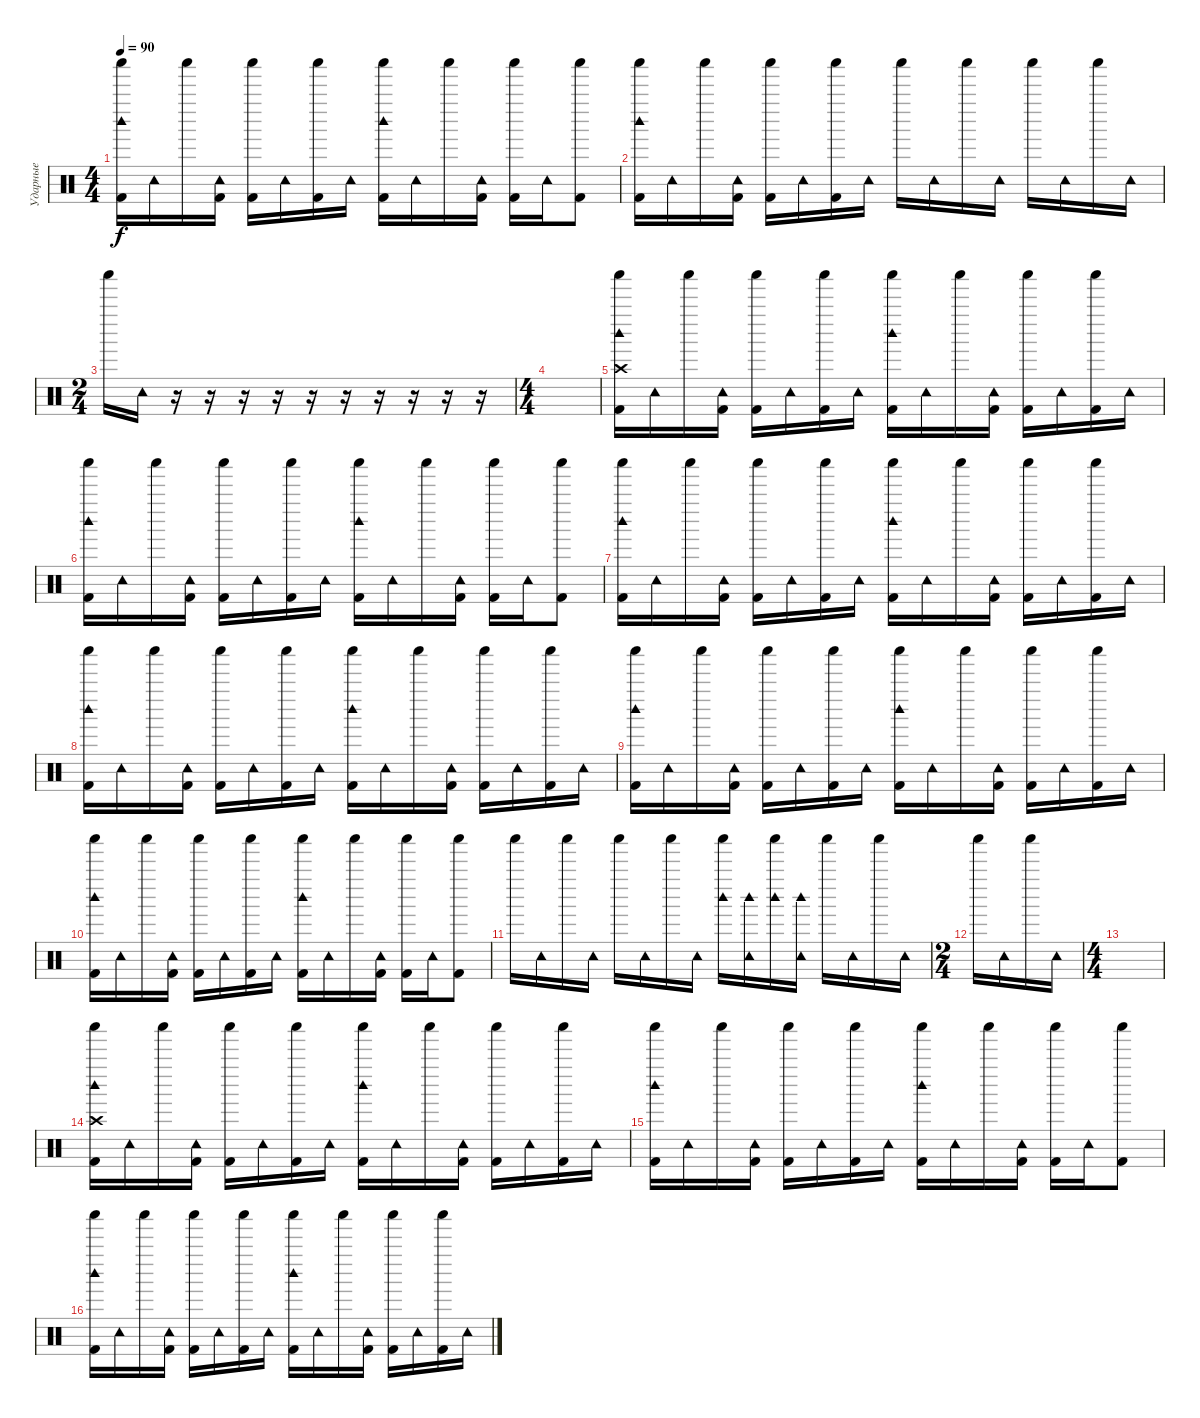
\track ("Ударные" "Ударные") {instrument percussion}
\staff {score}
\articulation defaults
\ts (4 4)
\tempo 90
\clef neutral
\ks c
("Shaker (hit)" "Kick (hit) 2" "Woodblock high (hit)").16{dy f} "Tambourine (hit)".16 "Shaker (hit)".16 ("Tambourine (hit)" "Kick (hit) 2").16 ("Shaker (hit)" "Kick (hit) 2").16 "Tambourine (hit)".16 ("Shaker (hit)" "Kick (hit) 2").16 "Tambourine (hit)".16 ("Shaker (hit)" "Kick (hit) 2" "Woodblock high (hit)").16 "Tambourine (hit)".16 "Shaker (hit)".16 ("Tambourine (hit)" "Kick (hit) 2").16 ("Shaker (hit)" "Kick (hit) 2").16 "Tambourine (hit)".16 ("Shaker (hit)" "Kick (hit) 2").8 |
("Shaker (hit)" "Kick (hit) 2" "Woodblock high (hit)").16 "Tambourine (hit)".16 "Shaker (hit)".16 ("Tambourine (hit)" "Kick (hit) 2").16 ("Shaker (hit)" "Kick (hit) 2").16 "Tambourine (hit)".16 ("Shaker (hit)" "Kick (hit) 2").16 "Tambourine (hit)".16 "Shaker (hit)".16 "Tambourine (hit)".16 "Shaker (hit)".16 "Tambourine (hit)".16 "Shaker (hit)".16 "Tambourine (hit)".16 "Shaker (hit)".16 "Tambourine (hit)".16 |
\ts (2 4)
"Shaker (hit)".16 "Tambourine (hit)".16 r.16 r.16 r.16 r.16 r.16 r.16 r.16 r.16 r.16 r.16 |
\ts (4 4)
|
("Shaker (hit)" "Kick (hit) 2" "Woodblock high (hit)" "Crash high (hit)").16 "Tambourine (hit)".16 "Shaker (hit)".16 ("Tambourine (hit)" "Kick (hit) 2").16 ("Shaker (hit)" "Kick (hit) 2").16 "Tambourine (hit)".16 ("Shaker (hit)" "Kick (hit) 2").16 "Tambourine (hit)".16 ("Shaker (hit)" "Kick (hit) 2" "Woodblock high (hit)").16 "Tambourine (hit)".16 "Shaker (hit)".16 ("Tambourine (hit)" "Kick (hit) 2").16 ("Shaker (hit)" "Kick (hit) 2").16 "Tambourine (hit)".16 ("Shaker (hit)" "Kick (hit) 2").16 "Tambourine (hit)".16 |
("Shaker (hit)" "Kick (hit) 2" "Woodblock high (hit)").16 "Tambourine (hit)".16 "Shaker (hit)".16 ("Tambourine (hit)" "Kick (hit) 2").16 ("Shaker (hit)" "Kick (hit) 2").16 "Tambourine (hit)".16 ("Shaker (hit)" "Kick (hit) 2").16 "Tambourine (hit)".16 ("Shaker (hit)" "Kick (hit) 2" "Woodblock high (hit)").16 "Tambourine (hit)".16 "Shaker (hit)".16 ("Tambourine (hit)" "Kick (hit) 2").16 ("Shaker (hit)" "Kick (hit) 2").16 "Tambourine (hit)".16 ("Shaker (hit)" "Kick (hit) 2").8 |
("Shaker (hit)" "Kick (hit) 2" "Woodblock high (hit)").16 "Tambourine (hit)".16 "Shaker (hit)".16 ("Tambourine (hit)" "Kick (hit) 2").16 ("Shaker (hit)" "Kick (hit) 2").16 "Tambourine (hit)".16 ("Shaker (hit)" "Kick (hit) 2").16 "Tambourine (hit)".16 ("Shaker (hit)" "Kick (hit) 2" "Woodblock high (hit)").16 "Tambourine (hit)".16 "Shaker (hit)".16 ("Tambourine (hit)" "Kick (hit) 2").16 ("Shaker (hit)" "Kick (hit) 2").16 "Tambourine (hit)".16 ("Shaker (hit)" "Kick (hit) 2").16 "Tambourine (hit)".16 |
("Shaker (hit)" "Kick (hit) 2" "Woodblock high (hit)").16 "Tambourine (hit)".16 "Shaker (hit)".16 ("Tambourine (hit)" "Kick (hit) 2").16 ("Shaker (hit)" "Kick (hit) 2").16 "Tambourine (hit)".16 ("Shaker (hit)" "Kick (hit) 2").16 "Tambourine (hit)".16 ("Shaker (hit)" "Kick (hit) 2" "Woodblock high (hit)").16 "Tambourine (hit)".16 "Shaker (hit)".16 ("Tambourine (hit)" "Kick (hit) 2").16 ("Shaker (hit)" "Kick (hit) 2").16 "Tambourine (hit)".16 ("Shaker (hit)" "Kick (hit) 2").16 "Tambourine (hit)".16 |
("Shaker (hit)" "Kick (hit) 2" "Woodblock high (hit)").16 "Tambourine (hit)".16 "Shaker (hit)".16 ("Tambourine (hit)" "Kick (hit) 2").16 ("Shaker (hit)" "Kick (hit) 2").16 "Tambourine (hit)".16 ("Shaker (hit)" "Kick (hit) 2").16 "Tambourine (hit)".16 ("Shaker (hit)" "Kick (hit) 2" "Woodblock high (hit)").16 "Tambourine (hit)".16 "Shaker (hit)".16 ("Tambourine (hit)" "Kick (hit) 2").16 ("Shaker (hit)" "Kick (hit) 2").16 "Tambourine (hit)".16 ("Shaker (hit)" "Kick (hit) 2").16 "Tambourine (hit)".16 |
("Shaker (hit)" "Kick (hit) 2" "Woodblock high (hit)").16 "Tambourine (hit)".16 "Shaker (hit)".16 ("Tambourine (hit)" "Kick (hit) 2").16 ("Shaker (hit)" "Kick (hit) 2").16 "Tambourine (hit)".16 ("Shaker (hit)" "Kick (hit) 2").16 "Tambourine (hit)".16 ("Shaker (hit)" "Kick (hit) 2" "Woodblock high (hit)").16 "Tambourine (hit)".16 "Shaker (hit)".16 ("Tambourine (hit)" "Kick (hit) 2").16 ("Shaker (hit)" "Kick (hit) 2").16 "Tambourine (hit)".16 ("Shaker (hit)" "Kick (hit) 2").8 |
"Shaker (hit)".16 "Tambourine (hit)".16 "Shaker (hit)".16 "Tambourine (hit)".16 "Shaker (hit)".16 "Tambourine (hit)".16 "Shaker (hit)".16 "Tambourine (hit)".16 ("Shaker (hit)" "Woodblock high (hit)").16 ("Tambourine (hit)" "Woodblock high (hit)").16 ("Shaker (hit)" "Woodblock high (hit)").16 ("Tambourine (hit)" "Woodblock high (hit)").16 "Shaker (hit)".16 "Tambourine (hit)".16 "Shaker (hit)".16 "Tambourine (hit)".16 |
\ts (2 4)
"Shaker (hit)".16 "Tambourine (hit)".16 "Shaker (hit)".16 "Tambourine (hit)".16 |
\ts (4 4)
|
("Shaker (hit)" "Kick (hit) 2" "Woodblock high (hit)" "Crash high (hit)").16 "Tambourine (hit)".16 "Shaker (hit)".16 ("Tambourine (hit)" "Kick (hit) 2").16 ("Shaker (hit)" "Kick (hit) 2").16 "Tambourine (hit)".16 ("Shaker (hit)" "Kick (hit) 2").16 "Tambourine (hit)".16 ("Shaker (hit)" "Kick (hit) 2" "Woodblock high (hit)").16 "Tambourine (hit)".16 "Shaker (hit)".16 ("Tambourine (hit)" "Kick (hit) 2").16 ("Shaker (hit)" "Kick (hit) 2").16 "Tambourine (hit)".16 ("Shaker (hit)" "Kick (hit) 2").16 "Tambourine (hit)".16 |
("Shaker (hit)" "Kick (hit) 2" "Woodblock high (hit)").16 "Tambourine (hit)".16 "Shaker (hit)".16 ("Tambourine (hit)" "Kick (hit) 2").16 ("Shaker (hit)" "Kick (hit) 2").16 "Tambourine (hit)".16 ("Shaker (hit)" "Kick (hit) 2").16 "Tambourine (hit)".16 ("Shaker (hit)" "Kick (hit) 2" "Woodblock high (hit)").16 "Tambourine (hit)".16 "Shaker (hit)".16 ("Tambourine (hit)" "Kick (hit) 2").16 ("Shaker (hit)" "Kick (hit) 2").16 "Tambourine (hit)".16 ("Shaker (hit)" "Kick (hit) 2").8 |
("Shaker (hit)" "Kick (hit) 2" "Woodblock high (hit)").16 "Tambourine (hit)".16 "Shaker (hit)".16 ("Tambourine (hit)" "Kick (hit) 2").16 ("Shaker (hit)" "Kick (hit) 2").16 "Tambourine (hit)".16 ("Shaker (hit)" "Kick (hit) 2").16 "Tambourine (hit)".16 ("Shaker (hit)" "Kick (hit) 2" "Woodblock high (hit)").16 "Tambourine (hit)".16 "Shaker (hit)".16 ("Tambourine (hit)" "Kick (hit) 2").16 ("Shaker (hit)" "Kick (hit) 2").16 "Tambourine (hit)".16 ("Shaker (hit)" "Kick (hit) 2").16 "Tambourine (hit)".16
